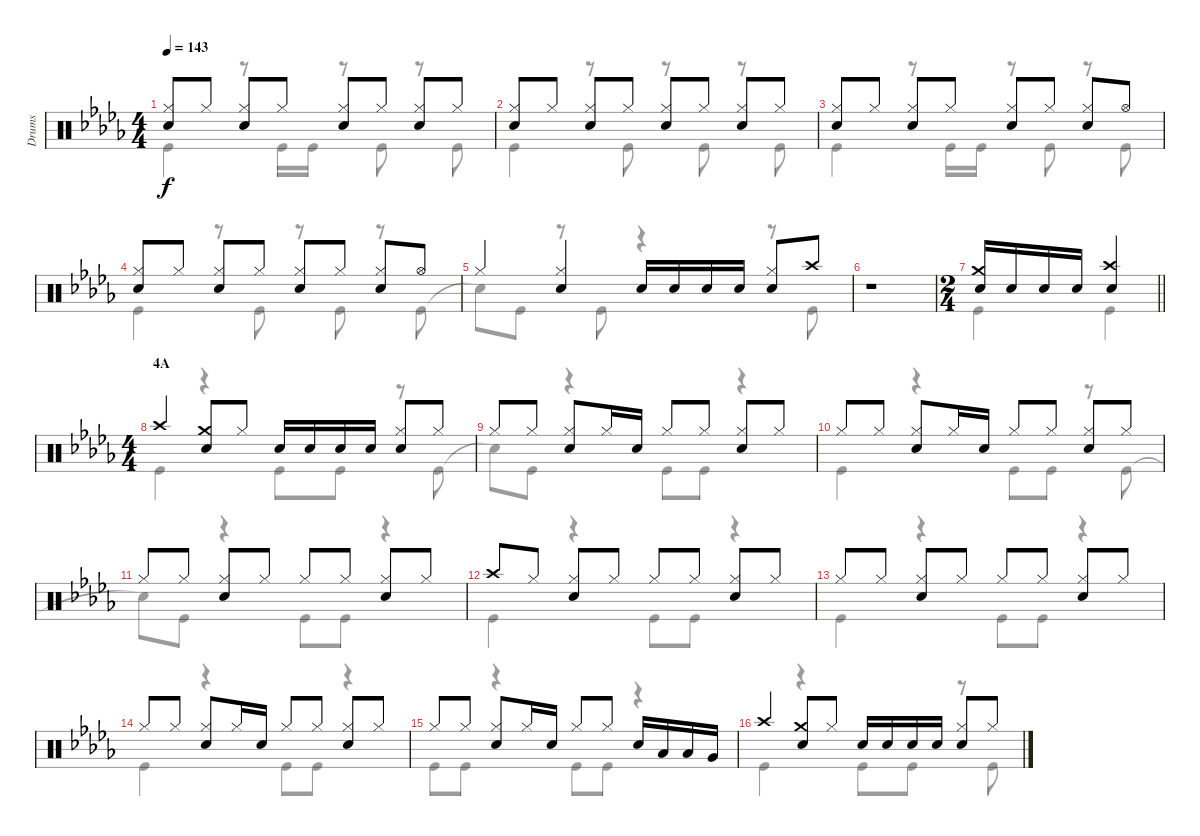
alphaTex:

\track ("Drums" "Drums") {instrument percussion}
\staff {score}
\articulation defaults
\voice
\ts (4 4)
\tempo 143
\clef neutral
\ks db
("Hi-Hat (closed)" "Snare (hit) 2").8{dy f} "Hi-Hat (closed)".8 ("Hi-Hat (closed)" "Snare (hit) 2").8 "Hi-Hat (closed)".8 ("Hi-Hat (closed)" "Snare (hit) 2").8 "Hi-Hat (closed)".8 ("Hi-Hat (closed)" "Snare (hit) 2").8 "Hi-Hat (closed)".8 |
("Hi-Hat (closed)" "Snare (hit) 2").8 "Hi-Hat (closed)".8 ("Hi-Hat (closed)" "Snare (hit) 2").8 "Hi-Hat (closed)".8 ("Hi-Hat (closed)" "Snare (hit) 2").8 "Hi-Hat (closed)".8 ("Hi-Hat (closed)" "Snare (hit) 2").8 "Hi-Hat (closed)".8 |
("Hi-Hat (closed)" "Snare (hit) 2").8 "Hi-Hat (closed)".8 ("Hi-Hat (closed)" "Snare (hit) 2").8 "Hi-Hat (closed)".8 ("Hi-Hat (closed)" "Snare (hit) 2").8 "Hi-Hat (closed)".8 ("Hi-Hat (closed)" "Snare (hit) 2").8 "Hi-Hat (open)".8 |
("Hi-Hat (closed)" "Snare (hit) 2").8 "Hi-Hat (closed)".8 ("Hi-Hat (closed)" "Snare (hit) 2").8 "Hi-Hat (closed)".8 ("Hi-Hat (closed)" "Snare (hit) 2").8 "Hi-Hat (closed)".8 ("Hi-Hat (closed)" "Snare (hit) 2").8 "Hi-Hat (open)".8 |
"Hi-Hat (closed)".4 ("Hi-Hat (closed)" "Snare (hit) 2").4 "Snare (hit) 2".16 "Snare (hit) 2".16 "Snare (hit) 2".16 "Snare (hit) 2".16 ("Hi-Hat (closed)" "Snare (hit) 2").8 "Crash high (hit)".8 |
r.1 |
\ts (2 4)
\barLineRight lightlight
("Crash medium (hit)" "Snare (hit) 2").16 "Snare (hit) 2".16 "Snare (hit) 2".16 "Snare (hit) 2".16 ("Crash high (hit)" "Snare (hit) 2").4 |
\ts (4 4)
\section ("" "4A")
"Crash high (hit)".4 ("Crash medium (hit)" "Snare (hit) 2").8 "Hi-Hat (closed)".8 "Snare (hit) 2".16 "Snare (hit) 2".16 "Snare (hit) 2".16 "Snare (hit) 2".16 ("Hi-Hat (closed)" "Snare (hit) 2").8 "Hi-Hat (closed)".8 |
"Hi-Hat (closed)".8 "Hi-Hat (closed)".8 ("Hi-Hat (closed)" "Snare (hit) 2").8 "Hi-Hat (closed)".16 "Snare (hit) 2".16 "Hi-Hat (closed)".8 "Hi-Hat (closed)".8 ("Hi-Hat (closed)" "Snare (hit) 2").8 "Hi-Hat (closed)".8 |
"Hi-Hat (closed)".8 "Hi-Hat (closed)".8 ("Hi-Hat (closed)" "Snare (hit) 2").8 "Hi-Hat (closed)".16 "Snare (hit) 2".16 "Hi-Hat (closed)".8 "Hi-Hat (closed)".8 ("Hi-Hat (closed)" "Snare (hit) 2").8 "Hi-Hat (closed)".8 |
"Hi-Hat (closed)".8 "Hi-Hat (closed)".8 ("Hi-Hat (closed)" "Snare (hit) 2").8 "Hi-Hat (closed)".8 "Hi-Hat (closed)".8 "Hi-Hat (closed)".8 ("Hi-Hat (closed)" "Snare (hit) 2").8 "Hi-Hat (closed)".8 |
"Crash high (hit)".8 "Hi-Hat (closed)".8 ("Hi-Hat (closed)" "Snare (hit) 2").8 "Hi-Hat (closed)".8 "Hi-Hat (closed)".8 "Hi-Hat (closed)".8 ("Hi-Hat (closed)" "Snare (hit) 2").8 "Hi-Hat (closed)".8 |
"Hi-Hat (closed)".8 "Hi-Hat (closed)".8 ("Hi-Hat (closed)" "Snare (hit) 2").8 "Hi-Hat (closed)".8 "Hi-Hat (closed)".8 "Hi-Hat (closed)".8 ("Hi-Hat (closed)" "Snare (hit) 2").8 "Hi-Hat (closed)".8 |
"Hi-Hat (closed)".8 "Hi-Hat (closed)".8 ("Hi-Hat (closed)" "Snare (hit) 2").8 "Hi-Hat (closed)".16 "Snare (hit) 2".16 "Hi-Hat (closed)".8 "Hi-Hat (closed)".8 ("Hi-Hat (closed)" "Snare (hit) 2").8 "Hi-Hat (closed)".8 |
"Hi-Hat (closed)".8 "Hi-Hat (closed)".8 ("Hi-Hat (closed)" "Snare (hit) 2").8 "Hi-Hat (closed)".16 "Snare (hit) 2".16 "Hi-Hat (closed)".8 "Hi-Hat (closed)".8 "Snare (hit) 2".16 "Low Tom (hit)".16 "Low Tom (hit)".16 "Very Low Tom (hit)".16 |
"Crash high (hit)".4 ("Crash medium (hit)" "Snare (hit) 2").8 "Hi-Hat (closed)".8 "Snare (hit) 2".16 "Snare (hit) 2".16 "Snare (hit) 2".16 "Snare (hit) 2".16 ("Hi-Hat (closed)" "Snare (hit) 2").8 "Hi-Hat (closed)".8
\voice
\clef neutral
\ottava regular
\simile none
\ks db "Kick (hit)".4{dy f}
r.8 "Kick (hit)".16 "Kick (hit)".16 r.8 "Kick (hit)".8 r.8 "Kick (hit)".8 |
"Kick (hit)".4 r.8 "Kick (hit)".8 r.8 "Kick (hit)".8 r.8 "Kick (hit)".8 |
"Kick (hit)".4 r.8 "Kick (hit)".16 "Kick (hit)".16 r.8 "Kick (hit)".8 r.8 "Kick (hit)".8 |
"Kick (hit)".4 r.8 "Kick (hit)".8 r.8 "Kick (hit)".8 r.8 "Kick (hit)".8 |
"Snare (hit)"{t}.8 "Kick (hit)".8 r.8 "Kick (hit)".8 r.4 r.8 "Kick (hit)".8 |
r.1 |
\barLineRight lightlight "Kick (hit)".4 "Kick (hit)".4
|
"Kick (hit)".4 r.4 "Kick (hit)".8 "Kick (hit)".8 r.8 "Kick (hit)".8 |
"Snare (hit)"{t}.8 "Kick (hit)".8 r.4 "Kick (hit)".8 "Kick (hit)".8 r.4 |
"Kick (hit)".4 r.4 "Kick (hit)".8 "Kick (hit)".8 r.8 "Kick (hit)".8 |
"Snare (hit)"{t}.8 "Kick (hit)".8 r.4 "Kick (hit)".8 "Kick (hit)".8 r.4 |
"Kick (hit)".4 r.4 "Kick (hit)".8 "Kick (hit)".8 r.4 |
"Kick (hit)".4 r.4 "Kick (hit)".8 "Kick (hit)".8 r.4 |
"Kick (hit)".4 r.4 "Kick (hit)".8 "Kick (hit)".8 r.4 |
"Kick (hit)".8 "Kick (hit)".8 r.4 "Kick (hit)".8 "Kick (hit)".8 r.4 |
"Kick (hit)".4 r.4 "Kick (hit)".8 "Kick (hit)".8 r.8 "Kick (hit)".8
